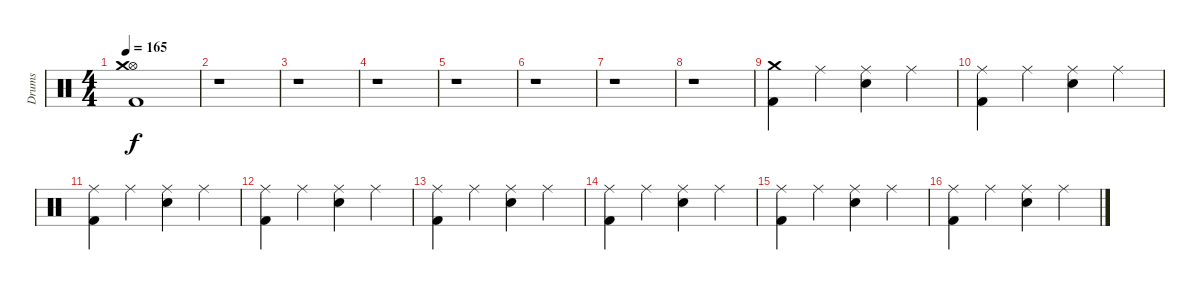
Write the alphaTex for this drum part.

\track ("Drums" "Drums") {instrument percussion}
\staff {score}
\articulation defaults
\ts (4 4)
\tempo 165
\clef neutral
\ks c
("Kick (hit) 2" "Hi-Hat (open)" "Crash medium (hit)").1{dy f} |
r.1 |
r.1 |
r.1 |
r.1 |
r.1 |
r.1 |
r.1 |
("Kick (hit) 2" "Crash medium (hit)").4 "Ride (middle)".4 ("Electric Snare (hit)" "Ride (middle)").4 "Ride (middle)".4 |
("Kick (hit) 2" "Ride (middle)").4 "Ride (middle)".4 ("Electric Snare (hit)" "Ride (middle)").4 "Ride (middle)".4 |
("Kick (hit) 2" "Ride (middle)").4 "Ride (middle)".4 ("Electric Snare (hit)" "Ride (middle)").4 "Ride (middle)".4 |
("Kick (hit) 2" "Ride (middle)").4 "Ride (middle)".4 ("Electric Snare (hit)" "Ride (middle)").4 "Ride (middle)".4 |
("Kick (hit) 2" "Ride (middle)").4 "Ride (middle)".4 ("Electric Snare (hit)" "Ride (middle)").4 "Ride (middle)".4 |
("Kick (hit) 2" "Ride (middle)").4 "Ride (middle)".4 ("Electric Snare (hit)" "Ride (middle)").4 "Ride (middle)".4 |
("Kick (hit) 2" "Ride (middle)").4 "Ride (middle)".4 ("Electric Snare (hit)" "Ride (middle)").4 "Ride (middle)".4 |
("Kick (hit) 2" "Ride (middle)").4 "Ride (middle)".4 ("Electric Snare (hit)" "Ride (middle)").4 "Ride (middle)".4
